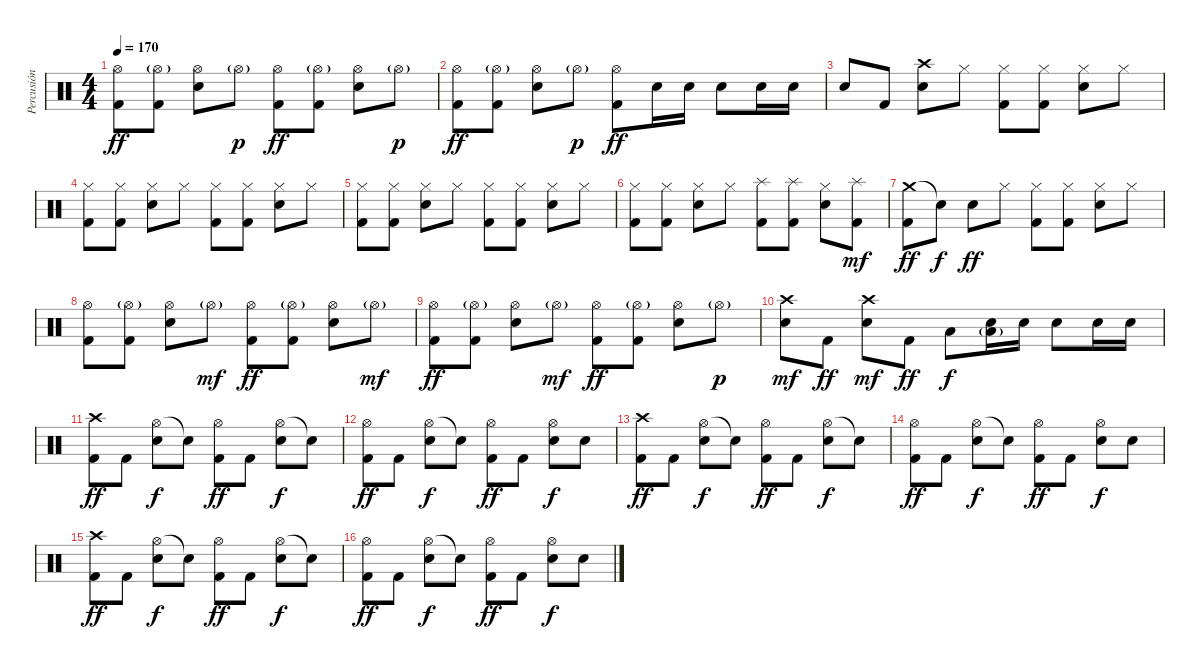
\track ("Percusión" "Percusión") {instrument percussion}
\staff {score}
\articulation defaults
\ts (4 4)
\tempo 170
\clef neutral
\ks c
("Hi-Hat (open)" "Kick (hit) 2").8{dy ff} ("Hi-Hat (open)"{g} "Kick (hit) 2").8 ("Hi-Hat (open)" "Snare (hit) 2").8 "Hi-Hat (open)"{g}.8{dy p} ("Hi-Hat (open)" "Kick (hit) 2").8{dy ff} ("Hi-Hat (open)"{g} "Kick (hit) 2").8 ("Hi-Hat (open)" "Snare (hit) 2").8 "Hi-Hat (open)"{g}.8{dy p} |
("Hi-Hat (open)" "Kick (hit) 2").8{dy ff} ("Hi-Hat (open)"{g} "Kick (hit) 2").8 ("Hi-Hat (open)" "Snare (hit) 2").8 "Hi-Hat (open)"{g}.8{dy p} ("Hi-Hat (open)" "Kick (hit) 2").8{dy ff} "Snare (hit) 2".16 "Snare (hit) 2".16 "Snare (hit) 2".8 "Snare (hit) 2".16 "Snare (hit) 2".16 |
"Snare (hit) 2".8 "Kick (hit) 2".8 ("Crash high (hit)" "Snare (hit) 2").8 "Hi-Hat (closed)".8 ("Hi-Hat (closed)" "Kick (hit) 2").8 ("Hi-Hat (closed)" "Kick (hit) 2").8 ("Hi-Hat (closed)" "Snare (hit) 2").8 "Hi-Hat (closed)".8 |
("Hi-Hat (closed)" "Kick (hit) 2").8 ("Hi-Hat (closed)" "Kick (hit) 2").8 ("Hi-Hat (closed)" "Snare (hit) 2").8 "Hi-Hat (closed)".8 ("Hi-Hat (closed)" "Kick (hit) 2").8 ("Hi-Hat (closed)" "Kick (hit) 2").8 ("Hi-Hat (closed)" "Snare (hit) 2").8 "Hi-Hat (closed)".8 |
("Hi-Hat (closed)" "Kick (hit) 2").8 ("Hi-Hat (closed)" "Kick (hit) 2").8 ("Hi-Hat (closed)" "Snare (hit) 2").8 "Hi-Hat (closed)".8 ("Hi-Hat (closed)" "Kick (hit) 2").8 ("Hi-Hat (closed)" "Kick (hit) 2").8 ("Hi-Hat (closed)" "Snare (hit) 2").8 "Hi-Hat (closed)".8 |
("Hi-Hat (closed)" "Kick (hit) 2").8 ("Hi-Hat (closed)" "Kick (hit) 2").8 ("Hi-Hat (closed)" "Snare (hit) 2").8 "Hi-Hat (closed)".8 ("Splash (hit)" "Kick (hit) 2").8 ("Splash (hit)" "Kick (hit) 2").8 ("Hi-Hat (closed)" "Snare (hit) 2").8 ("Splash (hit)" "Kick (hit) 2").8{dy mf} |
("Crash medium (hit)" "Kick (hit) 2").8{dy ff} "Snare (hit)"{t}.8{dy f} "Snare (hit) 2".8{dy ff} "Hi-Hat (closed)".8 ("Hi-Hat (closed)" "Kick (hit) 2").8 ("Hi-Hat (closed)" "Kick (hit) 2").8 ("Hi-Hat (closed)" "Snare (hit) 2").8 "Hi-Hat (closed)".8 |
("Hi-Hat (open)" "Kick (hit) 2").8 ("Hi-Hat (open)"{g} "Kick (hit) 2").8 ("Hi-Hat (open)" "Snare (hit) 2").8 "Hi-Hat (open)"{g}.8{dy mf} ("Hi-Hat (open)" "Kick (hit) 2").8{dy ff} ("Hi-Hat (open)"{g} "Kick (hit) 2").8 ("Hi-Hat (open)" "Snare (hit) 2").8 "Hi-Hat (open)"{g}.8{dy mf} |
("Hi-Hat (open)" "Kick (hit) 2").8{dy ff} ("Hi-Hat (open)"{g} "Kick (hit) 2").8 ("Hi-Hat (open)" "Snare (hit) 2").8 "Hi-Hat (open)"{g}.8{dy mf} ("Hi-Hat (open)" "Kick (hit) 2").8{dy ff} ("Hi-Hat (open)"{g} "Kick (hit) 2").8 ("Hi-Hat (open)" "Snare (hit) 2").8 "Hi-Hat (open)"{g}.8{dy p} |
("Crash high (hit)" "Snare (hit) 2").8{dy mf} "Kick (hit) 2".8{dy ff} ("Crash high (hit)" "Snare (hit) 2").8{dy mf} "Kick (hit) 2".8{dy ff} "Low Tom (hit)".8{dy f} ("Low Tom (hit)"{g} "Snare (hit) 2").16 "Snare (hit) 2".16 "Snare (hit) 2".8 "Snare (hit) 2".16 "Snare (hit) 2".16 |
("Crash high (hit)" "Kick (hit) 2").8{dy ff} "Kick (hit) 2".8 ("Hi-Hat (open)" "Snare (hit) 2").8{dy f} "Snare (hit)"{t}.8 ("Hi-Hat (open)" "Kick (hit) 2").8{dy ff} "Kick (hit) 2".8 ("Hi-Hat (open)" "Snare (hit) 2").8{dy f} "Snare (hit)"{t}.8 |
("Hi-Hat (open)" "Kick (hit) 2").8{dy ff} "Kick (hit) 2".8 ("Hi-Hat (open)" "Snare (hit) 2").8{dy f} "Snare (hit)"{t}.8 ("Hi-Hat (open)" "Kick (hit) 2").8{dy ff} "Kick (hit) 2".8 ("Hi-Hat (open)" "Snare (hit) 2").8{dy f} "Snare (hit) 2".8 |
("Crash high (hit)" "Kick (hit) 2").8{dy ff} "Kick (hit) 2".8 ("Hi-Hat (open)" "Snare (hit) 2").8{dy f} "Snare (hit)"{t}.8 ("Hi-Hat (open)" "Kick (hit) 2").8{dy ff} "Kick (hit) 2".8 ("Hi-Hat (open)" "Snare (hit) 2").8{dy f} "Snare (hit)"{t}.8 |
("Hi-Hat (open)" "Kick (hit) 2").8{dy ff} "Kick (hit) 2".8 ("Hi-Hat (open)" "Snare (hit) 2").8{dy f} "Snare (hit)"{t}.8 ("Hi-Hat (open)" "Kick (hit) 2").8{dy ff} "Kick (hit) 2".8 ("Hi-Hat (open)" "Snare (hit) 2").8{dy f} "Snare (hit) 2".8 |
("Crash high (hit)" "Kick (hit) 2").8{dy ff} "Kick (hit) 2".8 ("Hi-Hat (open)" "Snare (hit) 2").8{dy f} "Snare (hit)"{t}.8 ("Hi-Hat (open)" "Kick (hit) 2").8{dy ff} "Kick (hit) 2".8 ("Hi-Hat (open)" "Snare (hit) 2").8{dy f} "Snare (hit)"{t}.8 |
("Hi-Hat (open)" "Kick (hit) 2").8{dy ff} "Kick (hit) 2".8 ("Hi-Hat (open)" "Snare (hit) 2").8{dy f} "Snare (hit)"{t}.8 ("Hi-Hat (open)" "Kick (hit) 2").8{dy ff} "Kick (hit) 2".8 ("Hi-Hat (open)" "Snare (hit) 2").8{dy f} "Snare (hit) 2".8
